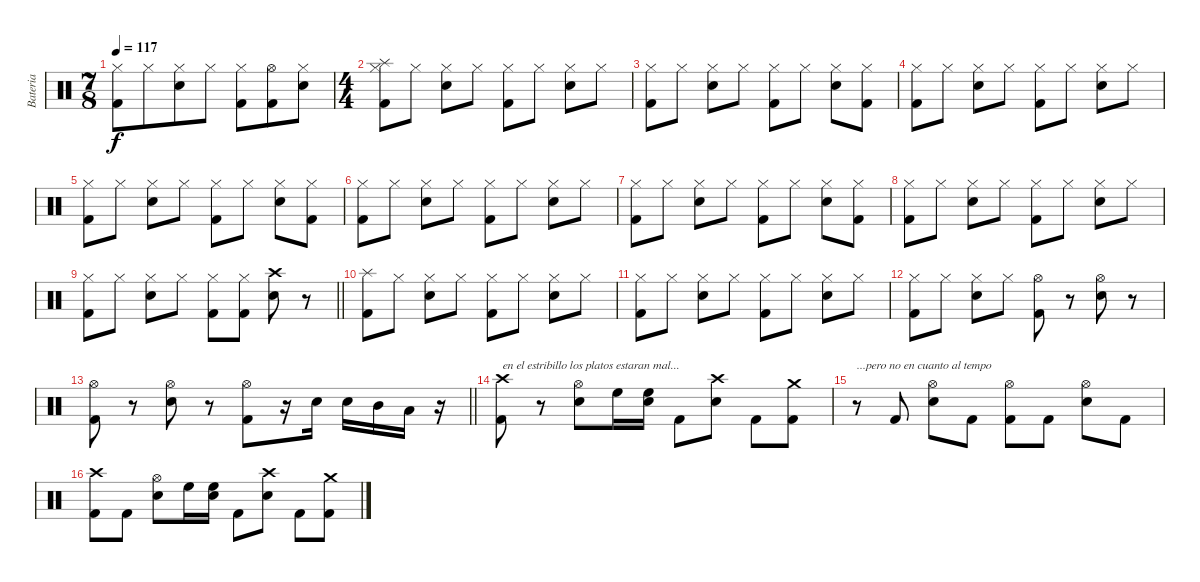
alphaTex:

\track ("Bateria" "Bateria") {instrument percussion}
\staff
\articulation defaults
\ts (7 8)
\tempo 117
\clef neutral
\ks c
("Hi-Hat (closed)" "Kick (hit) 2").8{dy f} "Hi-Hat (closed)".8 ("Hi-Hat (closed)" "Snare (hit) 2").8 "Hi-Hat (closed)".8 ("Hi-Hat (closed)" "Kick (hit) 2").8 ("Hi-Hat (open)" "Kick (hit) 2").8 ("Hi-Hat (closed)" "Snare (hit) 2").8 |
\ts (4 4)
("Splash (hit)" "Hi-Hat (closed)" "Kick (hit) 2").8 "Hi-Hat (closed)".8 ("Hi-Hat (closed)" "Snare (hit) 2").8 "Hi-Hat (closed)".8 ("Hi-Hat (closed)" "Kick (hit) 2").8 "Hi-Hat (closed)".8 ("Hi-Hat (closed)" "Snare (hit) 2").8 "Hi-Hat (closed)".8 |
("Hi-Hat (closed)" "Kick (hit) 2").8 "Hi-Hat (closed)".8 ("Hi-Hat (closed)" "Snare (hit) 2").8 "Hi-Hat (closed)".8 ("Hi-Hat (closed)" "Kick (hit) 2").8 "Hi-Hat (closed)".8 ("Hi-Hat (closed)" "Snare (hit) 2").8 ("Hi-Hat (closed)" "Kick (hit) 2").8 |
("Hi-Hat (closed)" "Kick (hit) 2").8 "Hi-Hat (closed)".8 ("Hi-Hat (closed)" "Snare (hit) 2").8 "Hi-Hat (closed)".8 ("Hi-Hat (closed)" "Kick (hit) 2").8 "Hi-Hat (closed)".8 ("Hi-Hat (closed)" "Snare (hit) 2").8 "Hi-Hat (closed)".8 |
("Hi-Hat (closed)" "Kick (hit) 2").8 "Hi-Hat (closed)".8 ("Hi-Hat (closed)" "Snare (hit) 2").8 "Hi-Hat (closed)".8 ("Hi-Hat (closed)" "Kick (hit) 2").8 "Hi-Hat (closed)".8 ("Hi-Hat (closed)" "Snare (hit) 2").8 ("Hi-Hat (closed)" "Kick (hit) 2").8 |
("Hi-Hat (closed)" "Kick (hit) 2").8 "Hi-Hat (closed)".8 ("Hi-Hat (closed)" "Snare (hit) 2").8 "Hi-Hat (closed)".8 ("Hi-Hat (closed)" "Kick (hit) 2").8 "Hi-Hat (closed)".8 ("Hi-Hat (closed)" "Snare (hit) 2").8 "Hi-Hat (closed)".8 |
("Hi-Hat (closed)" "Kick (hit) 2").8 "Hi-Hat (closed)".8 ("Hi-Hat (closed)" "Snare (hit) 2").8 "Hi-Hat (closed)".8 ("Hi-Hat (closed)" "Kick (hit) 2").8 "Hi-Hat (closed)".8 ("Hi-Hat (closed)" "Snare (hit) 2").8 ("Hi-Hat (closed)" "Kick (hit) 2").8 |
("Hi-Hat (closed)" "Kick (hit) 2").8 "Hi-Hat (closed)".8 ("Hi-Hat (closed)" "Snare (hit) 2").8 "Hi-Hat (closed)".8 ("Hi-Hat (closed)" "Kick (hit) 2").8 "Hi-Hat (closed)".8 ("Hi-Hat (closed)" "Snare (hit) 2").8 "Hi-Hat (closed)".8 |
\barLineRight lightlight
("Hi-Hat (closed)" "Kick (hit) 2").8 "Hi-Hat (closed)".8 ("Hi-Hat (closed)" "Snare (hit) 2").8 "Hi-Hat (closed)".8 ("Hi-Hat (closed)" "Kick (hit) 2").8 ("Hi-Hat (closed)" "Kick (hit) 2").8 ("Crash high (hit)" "Snare (hit) 2").8 r.8 |
("Splash (hit)" "Kick (hit) 2").8 "Hi-Hat (closed)".8 ("Hi-Hat (closed)" "Snare (hit) 2").8 "Hi-Hat (closed)".8 ("Hi-Hat (closed)" "Kick (hit) 2").8 "Hi-Hat (closed)".8 ("Hi-Hat (closed)" "Snare (hit) 2").8 "Hi-Hat (closed)".8 |
("Hi-Hat (closed)" "Kick (hit) 2").8 "Hi-Hat (closed)".8 ("Hi-Hat (closed)" "Snare (hit) 2").8 "Hi-Hat (closed)".8 ("Hi-Hat (closed)" "Kick (hit) 2").8 "Hi-Hat (closed)".8 ("Hi-Hat (closed)" "Snare (hit) 2").8 "Hi-Hat (closed)".8 |
("Hi-Hat (closed)" "Kick (hit) 2").8 "Hi-Hat (closed)".8 ("Hi-Hat (closed)" "Snare (hit) 2").8 "Hi-Hat (closed)".8 ("Hi-Hat (open)" "Kick (hit) 2").8 r.8 ("Hi-Hat (open)" "Snare (hit) 2").8 r.8 |
\barLineRight lightlight
("Hi-Hat (open)" "Kick (hit) 2").8 r.8 ("Hi-Hat (open)" "Snare (hit) 2").8 r.8 ("Hi-Hat (open)" "Kick (hit) 2").8 r.16 "Snare (hit) 2".16 "Snare (hit) 2".16 "Mid Tom (hit)".16 "Low Tom (hit)".16 r.16 |
("Crash high (hit)" "Kick (hit) 2").8{txt "en el estribillo los platos estaran mal..."} r.8 ("Hi-Hat (open)" "Snare (hit) 2").8 "High Floor Tom (hit)".16 ("High Floor Tom (hit)" "Snare (hit) 2").16 "Kick (hit) 2".8 ("Crash high (hit)" "Snare (hit) 2").8 "Kick (hit) 2".8 ("Crash medium (hit)" "Kick (hit) 2").8 |
r.8{txt "...pero no en cuanto al tempo"} "Kick (hit) 2".8 ("Hi-Hat (open)" "Snare (hit) 2").8 "Kick (hit) 2".8 ("Hi-Hat (open)" "Kick (hit) 2").8 "Kick (hit) 2".8 ("Hi-Hat (open)" "Snare (hit) 2").8 "Kick (hit) 2".8 |
("Crash high (hit)" "Kick (hit) 2").8 "Kick (hit) 2".8 ("Hi-Hat (open)" "Snare (hit) 2").8 "High Floor Tom (hit)".16 ("High Floor Tom (hit)" "Snare (hit) 2").16 "Kick (hit) 2".8 ("Crash high (hit)" "Snare (hit) 2").8 "Kick (hit) 2".8 ("Crash medium (hit)" "Kick (hit) 2").8
